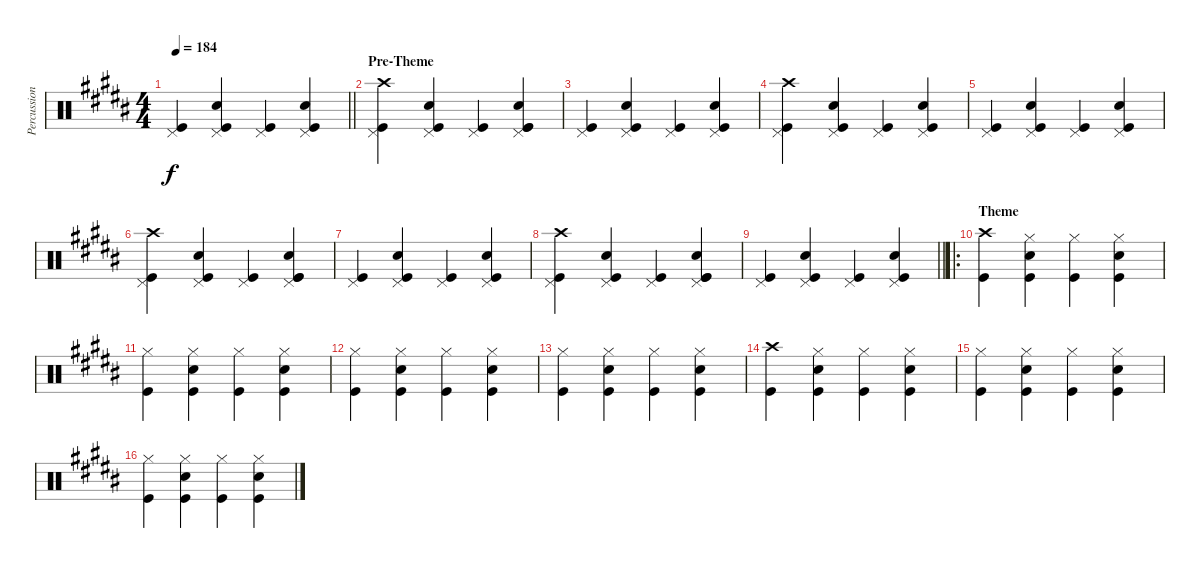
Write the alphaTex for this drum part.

\track ("Percussion" "Percussion") {instrument percussion}
\staff {score}
\articulation defaults
\ts (4 4)
\tempo 184
\clef neutral
\barLineRight lightlight
\ks b
("Pedal Hi-Hat (hit)" "Kick (hit)").4{dy f} ("Kick (hit)" "Pedal Hi-Hat (hit)" "Snare (hit) 2").4 ("Kick (hit)" "Pedal Hi-Hat (hit)").4 ("Kick (hit)" "Pedal Hi-Hat (hit)" "Snare (hit) 2").4 |
\section ("" "Pre-Theme")
("Kick (hit)" "Pedal Hi-Hat (hit)" "Crash high (hit)").4 ("Kick (hit)" "Pedal Hi-Hat (hit)" "Snare (hit) 2").4 ("Kick (hit)" "Pedal Hi-Hat (hit)").4 ("Kick (hit)" "Pedal Hi-Hat (hit)" "Kick (hit)" "Snare (hit) 2").4 |
("Kick (hit)" "Pedal Hi-Hat (hit)").4 ("Kick (hit)" "Pedal Hi-Hat (hit)" "Snare (hit) 2").4 ("Kick (hit)" "Pedal Hi-Hat (hit)").4 ("Kick (hit)" "Pedal Hi-Hat (hit)" "Snare (hit) 2").4 |
("Kick (hit)" "Pedal Hi-Hat (hit)" "Crash high (hit)").4 ("Kick (hit)" "Pedal Hi-Hat (hit)" "Snare (hit) 2").4 ("Kick (hit)" "Pedal Hi-Hat (hit)").4 ("Kick (hit)" "Pedal Hi-Hat (hit)" "Snare (hit) 2").4 |
("Pedal Hi-Hat (hit)" "Kick (hit)").4 ("Kick (hit)" "Pedal Hi-Hat (hit)" "Snare (hit) 2").4 ("Kick (hit)" "Pedal Hi-Hat (hit)").4 ("Kick (hit)" "Pedal Hi-Hat (hit)" "Snare (hit) 2").4 |
("Kick (hit)" "Pedal Hi-Hat (hit)" "Crash high (hit)").4 ("Kick (hit)" "Pedal Hi-Hat (hit)" "Snare (hit) 2").4 ("Kick (hit)" "Pedal Hi-Hat (hit)").4 ("Kick (hit)" "Pedal Hi-Hat (hit)" "Kick (hit)" "Snare (hit) 2").4 |
("Kick (hit)" "Pedal Hi-Hat (hit)").4 ("Kick (hit)" "Pedal Hi-Hat (hit)" "Snare (hit) 2").4 ("Kick (hit)" "Pedal Hi-Hat (hit)").4 ("Kick (hit)" "Pedal Hi-Hat (hit)" "Snare (hit) 2").4 |
("Kick (hit)" "Pedal Hi-Hat (hit)" "Crash high (hit)").4 ("Kick (hit)" "Pedal Hi-Hat (hit)" "Snare (hit) 2").4 ("Kick (hit)" "Pedal Hi-Hat (hit)").4 ("Kick (hit)" "Pedal Hi-Hat (hit)" "Kick (hit)" "Snare (hit) 2").4 |
\barLineRight lightlight
("Kick (hit)" "Pedal Hi-Hat (hit)").4 ("Kick (hit)" "Pedal Hi-Hat (hit)" "Snare (hit) 2").4 ("Kick (hit)" "Pedal Hi-Hat (hit)").4 ("Kick (hit)" "Pedal Hi-Hat (hit)" "Snare (hit) 2").4 |
\ro
\section ("" "Theme")
("Crash high (hit)" "Kick (hit)").4 ("Snare (hit) 2" "Kick (hit)" "Hi-Hat (closed)").4 ("Kick (hit)" "Hi-Hat (closed)").4 ("Snare (hit) 2" "Kick (hit)" "Hi-Hat (closed)").4 |
("Hi-Hat (closed)" "Kick (hit)").4 ("Snare (hit) 2" "Kick (hit)" "Hi-Hat (closed)").4 ("Hi-Hat (closed)" "Kick (hit)").4 ("Snare (hit) 2" "Kick (hit)" "Hi-Hat (closed)").4 |
("Hi-Hat (closed)" "Kick (hit)").4 ("Kick (hit)" "Hi-Hat (closed)" "Snare (hit) 2").4 ("Hi-Hat (closed)" "Kick (hit)").4 ("Hi-Hat (closed)" "Kick (hit)" "Snare (hit) 2").4 |
("Hi-Hat (closed)" "Kick (hit)").4 ("Hi-Hat (closed)" "Kick (hit)" "Snare (hit) 2").4 ("Hi-Hat (closed)" "Kick (hit)").4 ("Hi-Hat (closed)" "Kick (hit)" "Snare (hit) 2").4 |
("Crash high (hit)" "Kick (hit)").4 ("Snare (hit) 2" "Kick (hit)" "Hi-Hat (closed)").4 ("Kick (hit)" "Hi-Hat (closed)").4 ("Snare (hit) 2" "Kick (hit)" "Hi-Hat (closed)").4 |
("Hi-Hat (closed)" "Kick (hit)").4 ("Snare (hit) 2" "Kick (hit)" "Hi-Hat (closed)").4 ("Hi-Hat (closed)" "Kick (hit)").4 ("Snare (hit) 2" "Kick (hit)" "Hi-Hat (closed)").4 |
("Hi-Hat (closed)" "Kick (hit)").4 ("Kick (hit)" "Hi-Hat (closed)" "Snare (hit) 2").4 ("Hi-Hat (closed)" "Kick (hit)").4 ("Hi-Hat (closed)" "Kick (hit)" "Snare (hit) 2").4
